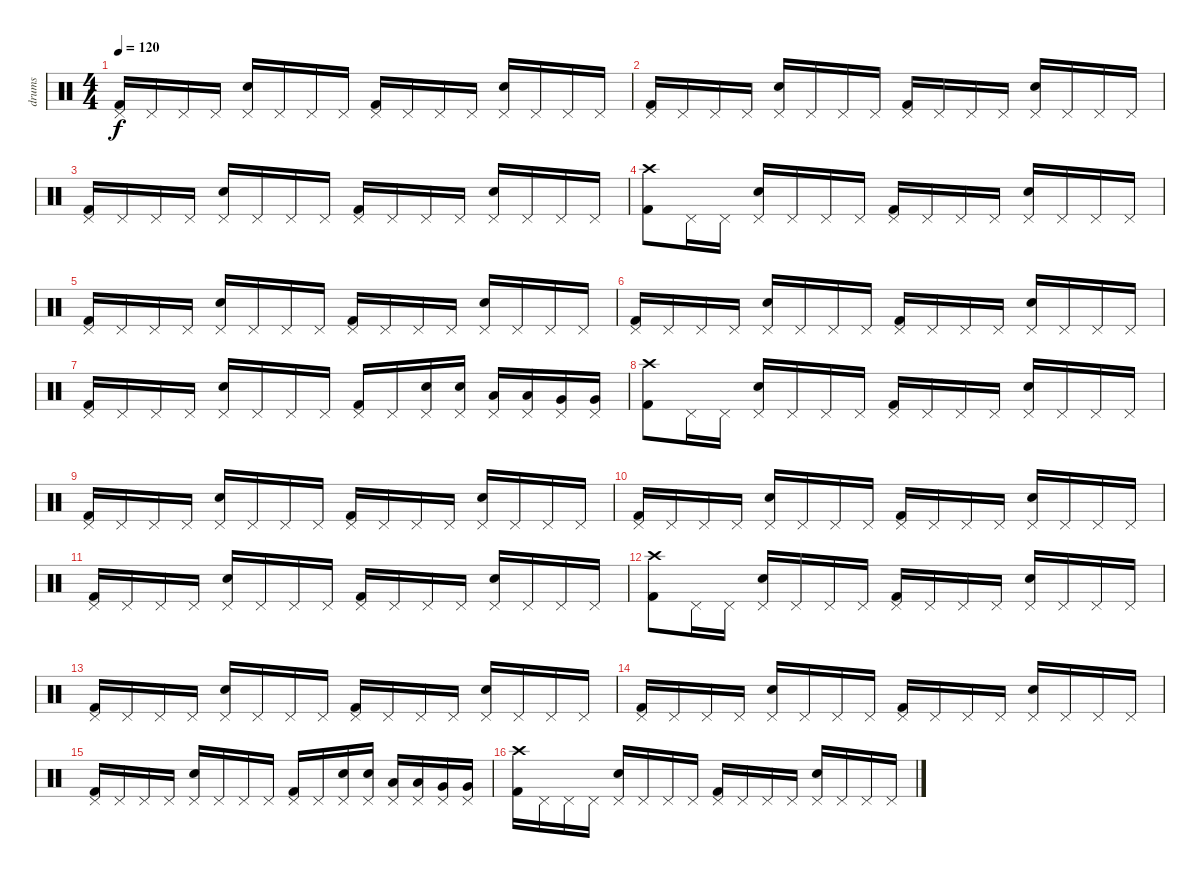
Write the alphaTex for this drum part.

\track ("drums" "drums") {instrument percussion}
\staff {score}
\articulation defaults
\ts (4 4)
\tempo 120
\clef neutral
\ks c
("Kick (hit) 2" "Pedal Hi-Hat (hit)").16{dy f} "Pedal Hi-Hat (hit)".16 "Pedal Hi-Hat (hit)".16 "Pedal Hi-Hat (hit)".16 ("Electric Snare (hit)" "Pedal Hi-Hat (hit)").16 "Pedal Hi-Hat (hit)".16 "Pedal Hi-Hat (hit)".16 "Pedal Hi-Hat (hit)".16 ("Kick (hit) 2" "Pedal Hi-Hat (hit)").16 "Pedal Hi-Hat (hit)".16 "Pedal Hi-Hat (hit)".16 "Pedal Hi-Hat (hit)".16 ("Electric Snare (hit)" "Pedal Hi-Hat (hit)").16 "Pedal Hi-Hat (hit)".16 "Pedal Hi-Hat (hit)".16 "Pedal Hi-Hat (hit)".16 |
("Kick (hit) 2" "Pedal Hi-Hat (hit)").16 "Pedal Hi-Hat (hit)".16 "Pedal Hi-Hat (hit)".16 "Pedal Hi-Hat (hit)".16 ("Electric Snare (hit)" "Pedal Hi-Hat (hit)").16 "Pedal Hi-Hat (hit)".16 "Pedal Hi-Hat (hit)".16 "Pedal Hi-Hat (hit)".16 ("Kick (hit) 2" "Pedal Hi-Hat (hit)").16 "Pedal Hi-Hat (hit)".16 "Pedal Hi-Hat (hit)".16 "Pedal Hi-Hat (hit)".16 ("Electric Snare (hit)" "Pedal Hi-Hat (hit)").16 "Pedal Hi-Hat (hit)".16 "Pedal Hi-Hat (hit)".16 "Pedal Hi-Hat (hit)".16 |
("Kick (hit) 2" "Pedal Hi-Hat (hit)").16 "Pedal Hi-Hat (hit)".16 "Pedal Hi-Hat (hit)".16 "Pedal Hi-Hat (hit)".16 ("Electric Snare (hit)" "Pedal Hi-Hat (hit)").16 "Pedal Hi-Hat (hit)".16 "Pedal Hi-Hat (hit)".16 "Pedal Hi-Hat (hit)".16 ("Kick (hit) 2" "Pedal Hi-Hat (hit)").16 "Pedal Hi-Hat (hit)".16 "Pedal Hi-Hat (hit)".16 "Pedal Hi-Hat (hit)".16 ("Electric Snare (hit)" "Pedal Hi-Hat (hit)").16 "Pedal Hi-Hat (hit)".16 "Pedal Hi-Hat (hit)".16 "Pedal Hi-Hat (hit)".16 |
("Kick (hit) 2" "Crash high (hit)").8 "Pedal Hi-Hat (hit)".16 "Pedal Hi-Hat (hit)".16 ("Electric Snare (hit)" "Pedal Hi-Hat (hit)").16 "Pedal Hi-Hat (hit)".16 "Pedal Hi-Hat (hit)".16 "Pedal Hi-Hat (hit)".16 ("Kick (hit) 2" "Pedal Hi-Hat (hit)").16 "Pedal Hi-Hat (hit)".16 "Pedal Hi-Hat (hit)".16 "Pedal Hi-Hat (hit)".16 ("Electric Snare (hit)" "Pedal Hi-Hat (hit)").16 "Pedal Hi-Hat (hit)".16 "Pedal Hi-Hat (hit)".16 "Pedal Hi-Hat (hit)".16 |
("Kick (hit) 2" "Pedal Hi-Hat (hit)").16 "Pedal Hi-Hat (hit)".16 "Pedal Hi-Hat (hit)".16 "Pedal Hi-Hat (hit)".16 ("Electric Snare (hit)" "Pedal Hi-Hat (hit)").16 "Pedal Hi-Hat (hit)".16 "Pedal Hi-Hat (hit)".16 "Pedal Hi-Hat (hit)".16 ("Kick (hit) 2" "Pedal Hi-Hat (hit)").16 "Pedal Hi-Hat (hit)".16 "Pedal Hi-Hat (hit)".16 "Pedal Hi-Hat (hit)".16 ("Electric Snare (hit)" "Pedal Hi-Hat (hit)").16 "Pedal Hi-Hat (hit)".16 "Pedal Hi-Hat (hit)".16 "Pedal Hi-Hat (hit)".16 |
("Kick (hit) 2" "Pedal Hi-Hat (hit)").16 "Pedal Hi-Hat (hit)".16 "Pedal Hi-Hat (hit)".16 "Pedal Hi-Hat (hit)".16 ("Electric Snare (hit)" "Pedal Hi-Hat (hit)").16 "Pedal Hi-Hat (hit)".16 "Pedal Hi-Hat (hit)".16 "Pedal Hi-Hat (hit)".16 ("Kick (hit) 2" "Pedal Hi-Hat (hit)").16 "Pedal Hi-Hat (hit)".16 "Pedal Hi-Hat (hit)".16 "Pedal Hi-Hat (hit)".16 ("Electric Snare (hit)" "Pedal Hi-Hat (hit)").16 "Pedal Hi-Hat (hit)".16 "Pedal Hi-Hat (hit)".16 "Pedal Hi-Hat (hit)".16 |
("Kick (hit) 2" "Pedal Hi-Hat (hit)").16 "Pedal Hi-Hat (hit)".16 "Pedal Hi-Hat (hit)".16 "Pedal Hi-Hat (hit)".16 ("Electric Snare (hit)" "Pedal Hi-Hat (hit)").16 "Pedal Hi-Hat (hit)".16 "Pedal Hi-Hat (hit)".16 "Pedal Hi-Hat (hit)".16 ("Kick (hit) 2" "Pedal Hi-Hat (hit)").16 "Pedal Hi-Hat (hit)".16 ("Electric Snare (hit)" "Pedal Hi-Hat (hit)").16 ("Electric Snare (hit)" "Pedal Hi-Hat (hit)").16 ("Low Tom (hit)" "Pedal Hi-Hat (hit)").16 ("Low Tom (hit)" "Pedal Hi-Hat (hit)").16 ("Very Low Tom (hit)" "Pedal Hi-Hat (hit)").16 ("Very Low Tom (hit)" "Pedal Hi-Hat (hit)").16 |
("Kick (hit) 2" "Crash high (hit)").8 "Pedal Hi-Hat (hit)".16 "Pedal Hi-Hat (hit)".16 ("Electric Snare (hit)" "Pedal Hi-Hat (hit)").16 "Pedal Hi-Hat (hit)".16 "Pedal Hi-Hat (hit)".16 "Pedal Hi-Hat (hit)".16 ("Kick (hit) 2" "Pedal Hi-Hat (hit)").16 "Pedal Hi-Hat (hit)".16 "Pedal Hi-Hat (hit)".16 "Pedal Hi-Hat (hit)".16 ("Electric Snare (hit)" "Pedal Hi-Hat (hit)").16 "Pedal Hi-Hat (hit)".16 "Pedal Hi-Hat (hit)".16 "Pedal Hi-Hat (hit)".16 |
("Kick (hit) 2" "Pedal Hi-Hat (hit)").16 "Pedal Hi-Hat (hit)".16 "Pedal Hi-Hat (hit)".16 "Pedal Hi-Hat (hit)".16 ("Electric Snare (hit)" "Pedal Hi-Hat (hit)").16 "Pedal Hi-Hat (hit)".16 "Pedal Hi-Hat (hit)".16 "Pedal Hi-Hat (hit)".16 ("Kick (hit) 2" "Pedal Hi-Hat (hit)").16 "Pedal Hi-Hat (hit)".16 "Pedal Hi-Hat (hit)".16 "Pedal Hi-Hat (hit)".16 ("Electric Snare (hit)" "Pedal Hi-Hat (hit)").16 "Pedal Hi-Hat (hit)".16 "Pedal Hi-Hat (hit)".16 "Pedal Hi-Hat (hit)".16 |
("Kick (hit) 2" "Pedal Hi-Hat (hit)").16 "Pedal Hi-Hat (hit)".16 "Pedal Hi-Hat (hit)".16 "Pedal Hi-Hat (hit)".16 ("Electric Snare (hit)" "Pedal Hi-Hat (hit)").16 "Pedal Hi-Hat (hit)".16 "Pedal Hi-Hat (hit)".16 "Pedal Hi-Hat (hit)".16 ("Kick (hit) 2" "Pedal Hi-Hat (hit)").16 "Pedal Hi-Hat (hit)".16 "Pedal Hi-Hat (hit)".16 "Pedal Hi-Hat (hit)".16 ("Electric Snare (hit)" "Pedal Hi-Hat (hit)").16 "Pedal Hi-Hat (hit)".16 "Pedal Hi-Hat (hit)".16 "Pedal Hi-Hat (hit)".16 |
("Kick (hit) 2" "Pedal Hi-Hat (hit)").16 "Pedal Hi-Hat (hit)".16 "Pedal Hi-Hat (hit)".16 "Pedal Hi-Hat (hit)".16 ("Electric Snare (hit)" "Pedal Hi-Hat (hit)").16 "Pedal Hi-Hat (hit)".16 "Pedal Hi-Hat (hit)".16 "Pedal Hi-Hat (hit)".16 ("Kick (hit) 2" "Pedal Hi-Hat (hit)").16 "Pedal Hi-Hat (hit)".16 "Pedal Hi-Hat (hit)".16 "Pedal Hi-Hat (hit)".16 ("Electric Snare (hit)" "Pedal Hi-Hat (hit)").16 "Pedal Hi-Hat (hit)".16 "Pedal Hi-Hat (hit)".16 "Pedal Hi-Hat (hit)".16 |
("Kick (hit) 2" "Crash high (hit)").8 "Pedal Hi-Hat (hit)".16 "Pedal Hi-Hat (hit)".16 ("Electric Snare (hit)" "Pedal Hi-Hat (hit)").16 "Pedal Hi-Hat (hit)".16 "Pedal Hi-Hat (hit)".16 "Pedal Hi-Hat (hit)".16 ("Kick (hit) 2" "Pedal Hi-Hat (hit)").16 "Pedal Hi-Hat (hit)".16 "Pedal Hi-Hat (hit)".16 "Pedal Hi-Hat (hit)".16 ("Electric Snare (hit)" "Pedal Hi-Hat (hit)").16 "Pedal Hi-Hat (hit)".16 "Pedal Hi-Hat (hit)".16 "Pedal Hi-Hat (hit)".16 |
("Kick (hit) 2" "Pedal Hi-Hat (hit)").16 "Pedal Hi-Hat (hit)".16 "Pedal Hi-Hat (hit)".16 "Pedal Hi-Hat (hit)".16 ("Electric Snare (hit)" "Pedal Hi-Hat (hit)").16 "Pedal Hi-Hat (hit)".16 "Pedal Hi-Hat (hit)".16 "Pedal Hi-Hat (hit)".16 ("Kick (hit) 2" "Pedal Hi-Hat (hit)").16 "Pedal Hi-Hat (hit)".16 "Pedal Hi-Hat (hit)".16 "Pedal Hi-Hat (hit)".16 ("Electric Snare (hit)" "Pedal Hi-Hat (hit)").16 "Pedal Hi-Hat (hit)".16 "Pedal Hi-Hat (hit)".16 "Pedal Hi-Hat (hit)".16 |
("Kick (hit) 2" "Pedal Hi-Hat (hit)").16 "Pedal Hi-Hat (hit)".16 "Pedal Hi-Hat (hit)".16 "Pedal Hi-Hat (hit)".16 ("Electric Snare (hit)" "Pedal Hi-Hat (hit)").16 "Pedal Hi-Hat (hit)".16 "Pedal Hi-Hat (hit)".16 "Pedal Hi-Hat (hit)".16 ("Kick (hit) 2" "Pedal Hi-Hat (hit)").16 "Pedal Hi-Hat (hit)".16 "Pedal Hi-Hat (hit)".16 "Pedal Hi-Hat (hit)".16 ("Electric Snare (hit)" "Pedal Hi-Hat (hit)").16 "Pedal Hi-Hat (hit)".16 "Pedal Hi-Hat (hit)".16 "Pedal Hi-Hat (hit)".16 |
("Kick (hit) 2" "Pedal Hi-Hat (hit)").16 "Pedal Hi-Hat (hit)".16 "Pedal Hi-Hat (hit)".16 "Pedal Hi-Hat (hit)".16 ("Electric Snare (hit)" "Pedal Hi-Hat (hit)").16 "Pedal Hi-Hat (hit)".16 "Pedal Hi-Hat (hit)".16 "Pedal Hi-Hat (hit)".16 ("Kick (hit) 2" "Pedal Hi-Hat (hit)").16 "Pedal Hi-Hat (hit)".16 ("Electric Snare (hit)" "Pedal Hi-Hat (hit)").16 ("Electric Snare (hit)" "Pedal Hi-Hat (hit)").16 ("Low Tom (hit)" "Pedal Hi-Hat (hit)").16 ("Low Tom (hit)" "Pedal Hi-Hat (hit)").16 ("Very Low Tom (hit)" "Pedal Hi-Hat (hit)").16 ("Very Low Tom (hit)" "Pedal Hi-Hat (hit)").16 |
("Kick (hit) 2" "Crash high (hit)").16 "Pedal Hi-Hat (hit)".16 "Pedal Hi-Hat (hit)".16 "Pedal Hi-Hat (hit)".16 ("Electric Snare (hit)" "Pedal Hi-Hat (hit)").16 "Pedal Hi-Hat (hit)".16 "Pedal Hi-Hat (hit)".16 "Pedal Hi-Hat (hit)".16 ("Kick (hit) 2" "Pedal Hi-Hat (hit)").16 "Pedal Hi-Hat (hit)".16 "Pedal Hi-Hat (hit)".16 "Pedal Hi-Hat (hit)".16 ("Electric Snare (hit)" "Pedal Hi-Hat (hit)").16 "Pedal Hi-Hat (hit)".16 "Pedal Hi-Hat (hit)".16 "Pedal Hi-Hat (hit)".16
